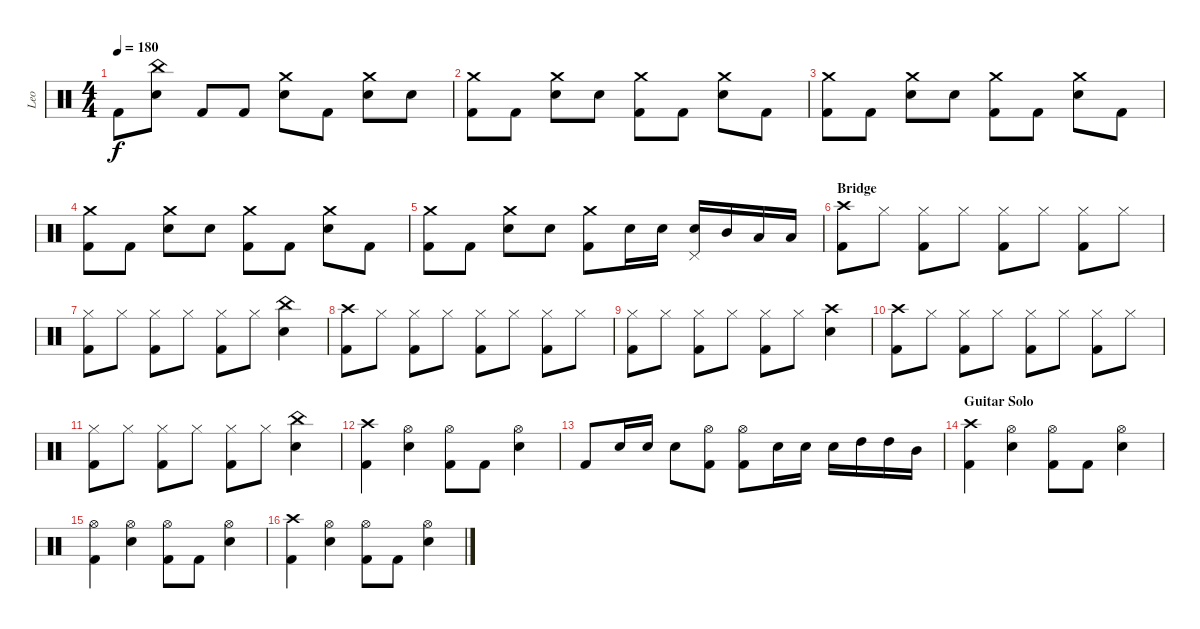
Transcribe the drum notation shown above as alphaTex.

\track ("Leo" "Leo") {instrument percussion}
\staff {score}
\articulation defaults
\ts (4 4)
\tempo 180
\clef neutral
\ks c "Kick (hit) 2".8{dy f}
("China (hit)" "Electric Snare (hit)").8 "Kick (hit) 2".8 "Kick (hit) 2".8 ("Crash medium (hit)" "Electric Snare (hit)").8 "Kick (hit) 2".8 ("Crash medium (hit)" "Electric Snare (hit)").8 "Electric Snare (hit)".8 |
("Crash medium (hit)" "Kick (hit) 2").8 "Kick (hit) 2".8 ("Crash medium (hit)" "Electric Snare (hit)").8 "Electric Snare (hit)".8 ("Crash medium (hit)" "Kick (hit) 2").8 "Kick (hit) 2".8 ("Crash medium (hit)" "Electric Snare (hit)").8 "Kick (hit) 2".8 |
("Crash medium (hit)" "Kick (hit) 2").8 "Kick (hit) 2".8 ("Crash medium (hit)" "Electric Snare (hit)").8 "Electric Snare (hit)".8 ("Crash medium (hit)" "Kick (hit) 2").8 "Kick (hit) 2".8 ("Crash medium (hit)" "Electric Snare (hit)").8 "Kick (hit) 2".8 |
("Crash medium (hit)" "Kick (hit) 2").8 "Kick (hit) 2".8 ("Crash medium (hit)" "Electric Snare (hit)").8 "Electric Snare (hit)".8 ("Crash medium (hit)" "Kick (hit) 2").8 "Kick (hit) 2".8 ("Crash medium (hit)" "Electric Snare (hit)").8 "Kick (hit) 2".8 |
("Crash medium (hit)" "Kick (hit) 2").8 "Kick (hit) 2".8 ("Crash medium (hit)" "Electric Snare (hit)").8 "Electric Snare (hit)".8 ("Crash medium (hit)" "Kick (hit) 2").8 "Electric Snare (hit)".16 "Electric Snare (hit)".16 ("Electric Snare (hit)" "Pedal Hi-Hat (hit)").16 "Mid Tom (hit)".16 "Low Tom (hit)".16 "Low Tom (hit)".16 |
\section ("" "Bridge")
("Crash high (hit)" "Kick (hit) 2").8 "Hi-Hat (closed)".8 ("Hi-Hat (closed)" "Kick (hit) 2").8 "Hi-Hat (closed)".8 ("Hi-Hat (closed)" "Kick (hit) 2").8 "Hi-Hat (closed)".8 ("Hi-Hat (closed)" "Kick (hit) 2").8 "Hi-Hat (closed)".8 |
("Hi-Hat (closed)" "Kick (hit) 2").8 "Hi-Hat (closed)".8 ("Hi-Hat (closed)" "Kick (hit) 2").8 "Hi-Hat (closed)".8 ("Hi-Hat (closed)" "Kick (hit) 2").8 "Hi-Hat (closed)".8 ("China (hit)" "Electric Snare (hit)").4 |
("Crash high (hit)" "Kick (hit) 2").8 "Hi-Hat (closed)".8 ("Hi-Hat (closed)" "Kick (hit) 2").8 "Hi-Hat (closed)".8 ("Hi-Hat (closed)" "Kick (hit) 2").8 "Hi-Hat (closed)".8 ("Hi-Hat (closed)" "Kick (hit) 2").8 "Hi-Hat (closed)".8 |
("Hi-Hat (closed)" "Kick (hit) 2").8 "Hi-Hat (closed)".8 ("Hi-Hat (closed)" "Kick (hit) 2").8 "Hi-Hat (closed)".8 ("Hi-Hat (closed)" "Kick (hit) 2").8 "Hi-Hat (closed)".8 ("Crash high (hit)" "Electric Snare (hit)").4 |
("Crash high (hit)" "Kick (hit) 2").8 "Hi-Hat (closed)".8 ("Hi-Hat (closed)" "Kick (hit) 2").8 "Hi-Hat (closed)".8 ("Hi-Hat (closed)" "Kick (hit) 2").8 "Hi-Hat (closed)".8 ("Hi-Hat (closed)" "Kick (hit) 2").8 "Hi-Hat (closed)".8 |
("Hi-Hat (closed)" "Kick (hit) 2").8 "Hi-Hat (closed)".8 ("Hi-Hat (closed)" "Kick (hit) 2").8 "Hi-Hat (closed)".8 ("Hi-Hat (closed)" "Kick (hit) 2").8 "Hi-Hat (closed)".8 ("China (hit)" "Electric Snare (hit)").4 |
("Crash high (hit)" "Kick (hit) 2").4 ("Hi-Hat (open)" "Electric Snare (hit)").4 ("Hi-Hat (open)" "Kick (hit) 2").8 "Kick (hit) 2".8 ("Hi-Hat (open)" "Electric Snare (hit)").4 |
"Kick (hit) 2".8 "Electric Snare (hit)".16 "Electric Snare (hit)".16 "Electric Snare (hit)".8 ("Hi-Hat (open)" "Kick (hit) 2").8 ("Hi-Hat (open)" "Kick (hit) 2").8 "Electric Snare (hit)".16 "Electric Snare (hit)".16 "Electric Snare (hit)".16 "High Tom (hit)".16 "High Tom (hit)".16 "Mid Tom (hit)".16 |
\section ("" "Guitar Solo")
("Crash high (hit)" "Kick (hit) 2").4 ("Hi-Hat (open)" "Electric Snare (hit)").4 ("Hi-Hat (open)" "Kick (hit) 2").8 "Kick (hit) 2".8 ("Hi-Hat (open)" "Electric Snare (hit)").4 |
("Hi-Hat (open)" "Kick (hit) 2").4 ("Hi-Hat (open)" "Electric Snare (hit)").4 ("Hi-Hat (open)" "Kick (hit) 2").8 "Kick (hit) 2".8 ("Hi-Hat (open)" "Electric Snare (hit)").4 |
("Crash high (hit)" "Kick (hit) 2").4 ("Hi-Hat (open)" "Electric Snare (hit)").4 ("Hi-Hat (open)" "Kick (hit) 2").8 "Kick (hit) 2".8 ("Hi-Hat (open)" "Electric Snare (hit)").4
